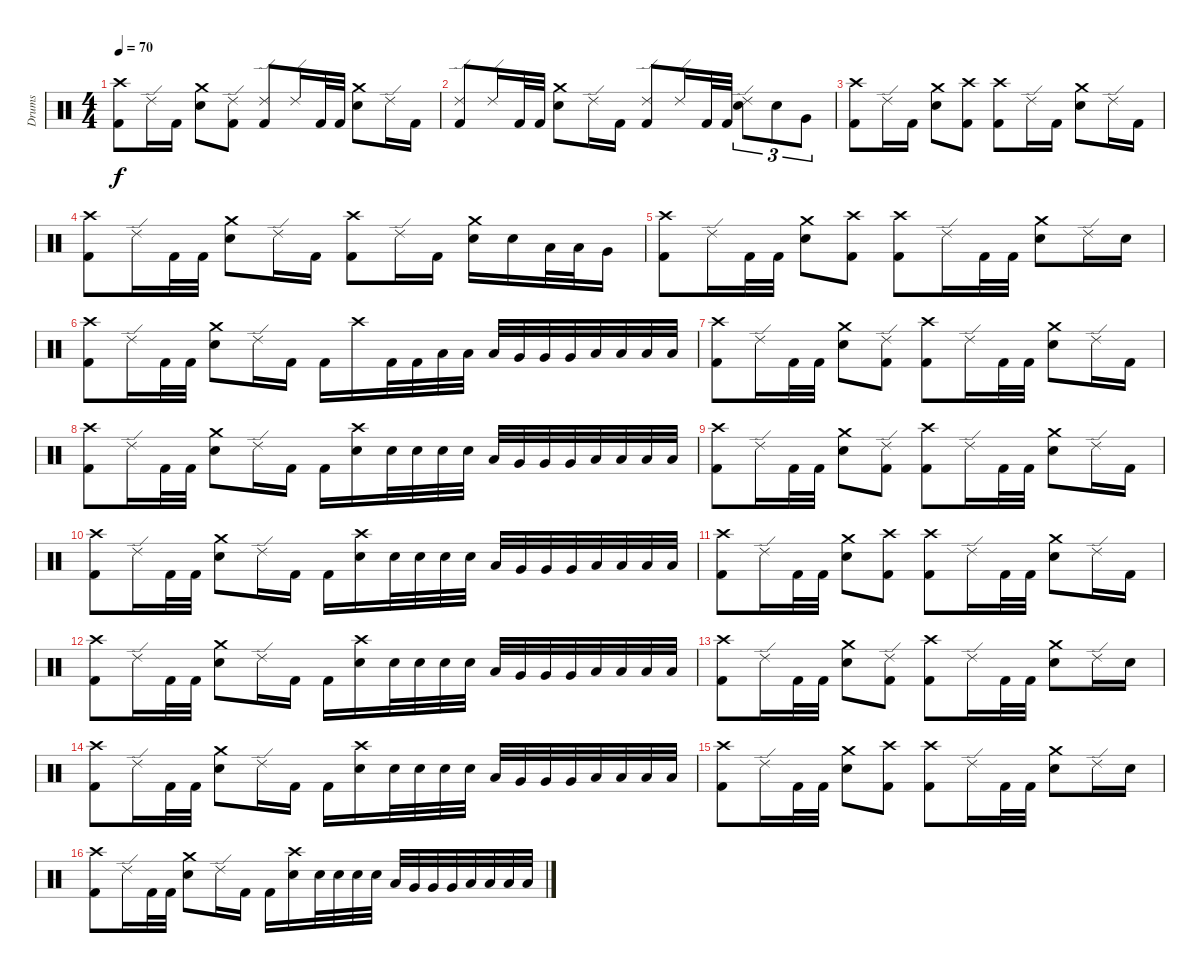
\track ("Drums" "Drums") {instrument percussion}
\staff {score}
\articulation defaults
\ts (4 4)
\tempo 70
\clef neutral
\ks c
("Crash high (hit)" "Kick (hit) 2").8{dy f} "Ride (edge) 2".16 "Kick (hit) 2".16 ("Crash medium (hit)" "Electric Snare (hit)").8 ("Ride (edge) 2" "Kick (hit) 2").8 ("Ride (edge) 2" "Kick (hit) 2").8 "Ride (edge) 2".16 "Kick (hit) 2".32 "Kick (hit) 2".32 ("Crash medium (hit)" "Electric Snare (hit)").8 "Ride (edge) 2".16 "Kick (hit) 2".16 |
("Ride (edge) 2" "Kick (hit) 2").8 "Ride (edge) 2".16 "Kick (hit) 2".32 "Kick (hit) 2".32 ("Crash medium (hit)" "Electric Snare (hit)").8 "Ride (edge) 2".16 "Kick (hit) 2".16 ("Ride (edge) 2" "Kick (hit) 2").8 "Ride (edge) 2".16 "Kick (hit) 2".32 "Kick (hit) 2".32 ("Ride (edge) 2" "Electric Snare (hit)").8{tu (3 2)} "Electric Snare (hit)".8{tu (3 2)} "Very Low Tom (hit)".8{tu (3 2)} |
("Crash high (hit)" "Kick (hit) 2").8 "Ride (edge) 2".16 "Kick (hit) 2".16 ("Crash medium (hit)" "Electric Snare (hit)").8 ("Crash high (hit)" "Kick (hit) 2").8 ("Crash high (hit)" "Kick (hit) 2").8 "Ride (edge) 2".16 "Kick (hit) 2".16 ("Crash medium (hit)" "Electric Snare (hit)").8 "Ride (edge) 2".16 "Kick (hit) 2".16 |
("Crash high (hit)" "Kick (hit) 2").8 "Ride (edge) 2".16 "Kick (hit) 2".32 "Kick (hit) 2".32 ("Crash medium (hit)" "Electric Snare (hit)").8 "Ride (edge) 2".16 "Kick (hit) 2".16 ("Crash high (hit)" "Kick (hit) 2").8 "Ride (edge) 2".16 "Kick (hit) 2".16 ("Crash medium (hit)" "Electric Snare (hit)").16 "Electric Snare (hit)".16 "Low Tom (hit)".32 "Low Tom (hit)".32 "Very Low Tom (hit)".16 |
("Crash high (hit)" "Kick (hit) 2").8 "Ride (edge) 2".16 "Kick (hit) 2".32 "Kick (hit) 2".32 ("Crash medium (hit)" "Electric Snare (hit)").8 ("Crash high (hit)" "Kick (hit) 2").8 ("Crash high (hit)" "Kick (hit) 2").8 "Ride (edge) 2".16 "Kick (hit) 2".32 "Kick (hit) 2".32 ("Crash medium (hit)" "Electric Snare (hit)").8 "Ride (edge) 2".16 "Electric Snare (hit)".16 |
("Crash high (hit)" "Kick (hit) 2").8 "Ride (edge) 2".16 "Kick (hit) 2".32 "Kick (hit) 2".32 ("Crash medium (hit)" "Electric Snare (hit)").8 "Ride (edge) 2".16 "Kick (hit) 2".16 "Kick (hit) 2".16 "Crash high (hit)".16 "Kick (hit) 2".32 "Kick (hit) 2".32 "Low Tom (hit)".32 "Low Tom (hit)".32 "Low Tom (hit)".32 "Very Low Tom (hit)".32 "Very Low Tom (hit)".32 "Very Low Tom (hit)".32 "Low Floor Tom (hit)".32 "Low Floor Tom (hit)".32 "Low Floor Tom (hit)".32 "Low Floor Tom (hit)".32 |
("Crash high (hit)" "Kick (hit) 2").8 "Ride (edge) 2".16 "Kick (hit) 2".32 "Kick (hit) 2".32 ("Crash medium (hit)" "Electric Snare (hit)").8 ("Ride (edge) 2" "Kick (hit) 2").8 ("Crash high (hit)" "Kick (hit) 2").8 "Ride (edge) 2".16 "Kick (hit) 2".32 "Kick (hit) 2".32 ("Crash medium (hit)" "Electric Snare (hit)").8 "Ride (edge) 2".16 "Kick (hit) 2".16 |
("Crash high (hit)" "Kick (hit) 2").8 "Ride (edge) 2".16 "Kick (hit) 2".32 "Kick (hit) 2".32 ("Crash medium (hit)" "Electric Snare (hit)").8 "Ride (edge) 2".16 "Kick (hit) 2".16 "Kick (hit) 2".16 ("Crash high (hit)" "Electric Snare (hit)").16 "Electric Snare (hit)".32 "Electric Snare (hit)".32 "Electric Snare (hit)".32 "Electric Snare (hit)".32 "Low Tom (hit)".32 "Very Low Tom (hit)".32 "Very Low Tom (hit)".32 "Very Low Tom (hit)".32 "Low Floor Tom (hit)".32 "Low Floor Tom (hit)".32 "Low Floor Tom (hit)".32 "Low Floor Tom (hit)".32 |
("Crash high (hit)" "Kick (hit) 2").8 "Ride (edge) 2".16 "Kick (hit) 2".32 "Kick (hit) 2".32 ("Crash medium (hit)" "Electric Snare (hit)").8 ("Ride (edge) 2" "Kick (hit) 2").8 ("Crash high (hit)" "Kick (hit) 2").8 "Ride (edge) 2".16 "Kick (hit) 2".32 "Kick (hit) 2".32 ("Crash medium (hit)" "Electric Snare (hit)").8 "Ride (edge) 2".16 "Kick (hit) 2".16 |
("Crash high (hit)" "Kick (hit) 2").8 "Ride (edge) 2".16 "Kick (hit) 2".32 "Kick (hit) 2".32 ("Crash medium (hit)" "Electric Snare (hit)").8 "Ride (edge) 2".16 "Kick (hit) 2".16 "Kick (hit) 2".16 ("Crash high (hit)" "Electric Snare (hit)").16 "Electric Snare (hit)".32 "Electric Snare (hit)".32 "Electric Snare (hit)".32 "Electric Snare (hit)".32 "Low Tom (hit)".32 "Very Low Tom (hit)".32 "Very Low Tom (hit)".32 "Very Low Tom (hit)".32 "Low Floor Tom (hit)".32 "Low Floor Tom (hit)".32 "Low Floor Tom (hit)".32 "Low Floor Tom (hit)".32 |
("Crash high (hit)" "Kick (hit) 2").8 "Ride (edge) 2".16 "Kick (hit) 2".32 "Kick (hit) 2".32 ("Crash medium (hit)" "Electric Snare (hit)").8 ("Crash high (hit)" "Kick (hit) 2").8 ("Crash high (hit)" "Kick (hit) 2").8 "Ride (edge) 2".16 "Kick (hit) 2".32 "Kick (hit) 2".32 ("Crash medium (hit)" "Electric Snare (hit)").8 "Ride (edge) 2".16 "Kick (hit) 2".16 |
("Crash high (hit)" "Kick (hit) 2").8 "Ride (edge) 2".16 "Kick (hit) 2".32 "Kick (hit) 2".32 ("Crash medium (hit)" "Electric Snare (hit)").8 "Ride (edge) 2".16 "Kick (hit) 2".16 "Kick (hit) 2".16 ("Crash high (hit)" "Electric Snare (hit)").16 "Electric Snare (hit)".32 "Electric Snare (hit)".32 "Electric Snare (hit)".32 "Electric Snare (hit)".32 "Low Tom (hit)".32 "Very Low Tom (hit)".32 "Very Low Tom (hit)".32 "Very Low Tom (hit)".32 "Low Floor Tom (hit)".32 "Low Floor Tom (hit)".32 "Low Floor Tom (hit)".32 "Low Floor Tom (hit)".32 |
("Crash high (hit)" "Kick (hit) 2").8 "Ride (edge) 2".16 "Kick (hit) 2".32 "Kick (hit) 2".32 ("Crash medium (hit)" "Electric Snare (hit)").8 ("Ride (edge) 2" "Kick (hit) 2").8 ("Crash high (hit)" "Kick (hit) 2").8 "Ride (edge) 2".16 "Kick (hit) 2".32 "Kick (hit) 2".32 ("Crash medium (hit)" "Electric Snare (hit)").8 "Ride (edge) 2".16 "Electric Snare (hit)".16 |
("Crash high (hit)" "Kick (hit) 2").8 "Ride (edge) 2".16 "Kick (hit) 2".32 "Kick (hit) 2".32 ("Crash medium (hit)" "Electric Snare (hit)").8 "Ride (edge) 2".16 "Kick (hit) 2".16 "Kick (hit) 2".16 ("Crash high (hit)" "Electric Snare (hit)").16 "Electric Snare (hit)".32 "Electric Snare (hit)".32 "Electric Snare (hit)".32 "Electric Snare (hit)".32 "Low Tom (hit)".32 "Very Low Tom (hit)".32 "Very Low Tom (hit)".32 "Very Low Tom (hit)".32 "Low Floor Tom (hit)".32 "Low Floor Tom (hit)".32 "Low Floor Tom (hit)".32 "Low Floor Tom (hit)".32 |
("Crash high (hit)" "Kick (hit) 2").8 "Ride (edge) 2".16 "Kick (hit) 2".32 "Kick (hit) 2".32 ("Crash medium (hit)" "Electric Snare (hit)").8 ("Crash high (hit)" "Kick (hit) 2").8 ("Crash high (hit)" "Kick (hit) 2").8 "Ride (edge) 2".16 "Kick (hit) 2".32 "Kick (hit) 2".32 ("Crash medium (hit)" "Electric Snare (hit)").8 "Ride (edge) 2".16 "Electric Snare (hit)".16 |
("Crash high (hit)" "Kick (hit) 2").8 "Ride (edge) 2".16 "Kick (hit) 2".32 "Kick (hit) 2".32 ("Crash medium (hit)" "Electric Snare (hit)").8 "Ride (edge) 2".16 "Kick (hit) 2".16 "Kick (hit) 2".16 ("Crash high (hit)" "Electric Snare (hit)").16 "Electric Snare (hit)".32 "Electric Snare (hit)".32 "Electric Snare (hit)".32 "Electric Snare (hit)".32 "Low Tom (hit)".32 "Very Low Tom (hit)".32 "Very Low Tom (hit)".32 "Very Low Tom (hit)".32 "Low Floor Tom (hit)".32 "Low Floor Tom (hit)".32 "Low Floor Tom (hit)".32 "Low Floor Tom (hit)".32
